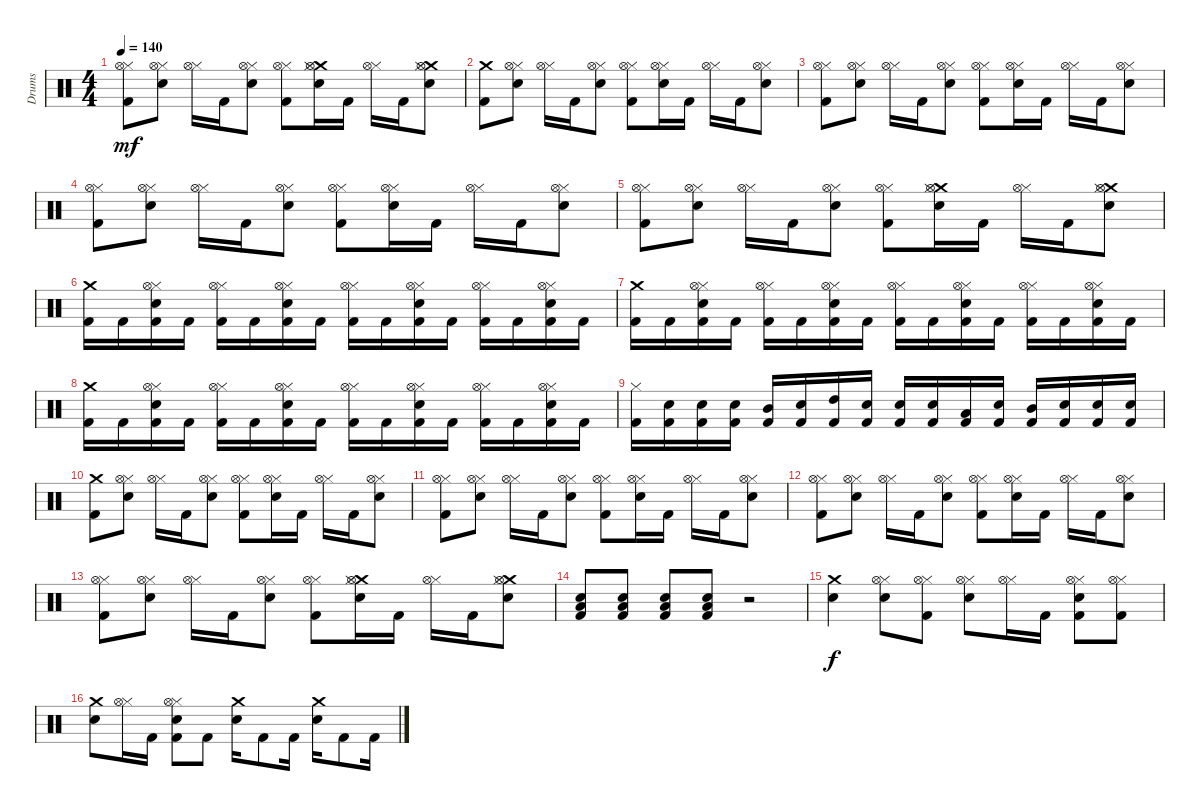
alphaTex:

\track ("Drums" "Drums") {instrument percussion}
\staff {score}
\articulation defaults
\ts (4 4)
\tempo 140
\clef neutral
\ks c
("Hi-Hat (closed)" "Hi-Hat (open)" "Kick (hit) 2").8{dy mf} ("Hi-Hat (closed)" "Hi-Hat (open)" "Electric Snare (hit)").8 ("Hi-Hat (closed)" "Hi-Hat (open)").16 "Kick (hit) 2".16 ("Hi-Hat (closed)" "Hi-Hat (open)" "Electric Snare (hit)").8 ("Hi-Hat (closed)" "Hi-Hat (open)" "Kick (hit) 2").8 ("Crash medium (hit)" "Hi-Hat (closed)" "Hi-Hat (open)" "Electric Snare (hit)").16 "Kick (hit) 2".16 ("Hi-Hat (closed)" "Hi-Hat (open)").16 "Kick (hit) 2".16 ("Crash medium (hit)" "Hi-Hat (closed)" "Hi-Hat (open)" "Electric Snare (hit)").8 |
("Crash medium (hit)" "Kick (hit) 2").8 ("Hi-Hat (closed)" "Hi-Hat (open)" "Electric Snare (hit)").8 ("Hi-Hat (closed)" "Hi-Hat (open)").16 "Kick (hit) 2".16 ("Hi-Hat (closed)" "Hi-Hat (open)" "Electric Snare (hit)").8 ("Hi-Hat (closed)" "Hi-Hat (open)" "Kick (hit) 2").8 ("Hi-Hat (closed)" "Hi-Hat (open)" "Electric Snare (hit)").16 "Kick (hit) 2".16 ("Hi-Hat (closed)" "Hi-Hat (open)").16 "Kick (hit) 2".16 ("Hi-Hat (closed)" "Hi-Hat (open)" "Electric Snare (hit)").8 |
("Hi-Hat (closed)" "Hi-Hat (open)" "Kick (hit) 2").8 ("Hi-Hat (closed)" "Hi-Hat (open)" "Electric Snare (hit)").8 ("Hi-Hat (closed)" "Hi-Hat (open)").16 "Kick (hit) 2".16 ("Hi-Hat (closed)" "Hi-Hat (open)" "Electric Snare (hit)").8 ("Hi-Hat (closed)" "Hi-Hat (open)" "Kick (hit) 2").8 ("Hi-Hat (closed)" "Hi-Hat (open)" "Electric Snare (hit)").16 "Kick (hit) 2".16 ("Hi-Hat (closed)" "Hi-Hat (open)").16 "Kick (hit) 2".16 ("Hi-Hat (closed)" "Hi-Hat (open)" "Electric Snare (hit)").8 |
("Hi-Hat (closed)" "Hi-Hat (open)" "Kick (hit) 2").8 ("Hi-Hat (closed)" "Hi-Hat (open)" "Electric Snare (hit)").8 ("Hi-Hat (closed)" "Hi-Hat (open)").16 "Kick (hit) 2".16 ("Hi-Hat (closed)" "Hi-Hat (open)" "Electric Snare (hit)").8 ("Hi-Hat (closed)" "Hi-Hat (open)" "Kick (hit) 2").8 ("Hi-Hat (closed)" "Hi-Hat (open)" "Electric Snare (hit)").16 "Kick (hit) 2".16 ("Hi-Hat (closed)" "Hi-Hat (open)").16 "Kick (hit) 2".16 ("Hi-Hat (closed)" "Hi-Hat (open)" "Electric Snare (hit)").8 |
("Hi-Hat (closed)" "Hi-Hat (open)" "Kick (hit) 2").8 ("Hi-Hat (closed)" "Hi-Hat (open)" "Electric Snare (hit)").8 ("Hi-Hat (closed)" "Hi-Hat (open)").16 "Kick (hit) 2".16 ("Hi-Hat (closed)" "Hi-Hat (open)" "Electric Snare (hit)").8 ("Hi-Hat (closed)" "Hi-Hat (open)" "Kick (hit) 2").8 ("Crash medium (hit)" "Hi-Hat (closed)" "Hi-Hat (open)" "Electric Snare (hit)").16 "Kick (hit) 2".16 ("Hi-Hat (closed)" "Hi-Hat (open)").16 "Kick (hit) 2".16 ("Crash medium (hit)" "Hi-Hat (closed)" "Hi-Hat (open)" "Electric Snare (hit)").8 |
("Crash medium (hit)" "Kick (hit) 2").16 "Kick (hit) 2".16 ("Hi-Hat (closed)" "Hi-Hat (open)" "Electric Snare (hit)" "Kick (hit) 2").16 "Kick (hit) 2".16 ("Hi-Hat (closed)" "Hi-Hat (open)" "Kick (hit) 2").16 "Kick (hit) 2".16 ("Hi-Hat (closed)" "Hi-Hat (open)" "Electric Snare (hit)" "Kick (hit) 2").16 "Kick (hit) 2".16 ("Hi-Hat (closed)" "Hi-Hat (open)" "Kick (hit) 2").16 "Kick (hit) 2".16 ("Hi-Hat (closed)" "Hi-Hat (open)" "Electric Snare (hit)" "Kick (hit) 2").16 "Kick (hit) 2".16 ("Hi-Hat (closed)" "Hi-Hat (open)" "Kick (hit) 2").16 "Kick (hit) 2".16 ("Hi-Hat (closed)" "Hi-Hat (open)" "Electric Snare (hit)" "Kick (hit) 2").16 "Kick (hit) 2".16 |
("Crash medium (hit)" "Kick (hit) 2").16 "Kick (hit) 2".16 ("Hi-Hat (closed)" "Hi-Hat (open)" "Electric Snare (hit)" "Kick (hit) 2").16 "Kick (hit) 2".16 ("Hi-Hat (closed)" "Hi-Hat (open)" "Kick (hit) 2").16 "Kick (hit) 2".16 ("Hi-Hat (closed)" "Hi-Hat (open)" "Electric Snare (hit)" "Kick (hit) 2").16 "Kick (hit) 2".16 ("Hi-Hat (closed)" "Hi-Hat (open)" "Kick (hit) 2").16 "Kick (hit) 2".16 ("Hi-Hat (closed)" "Hi-Hat (open)" "Electric Snare (hit)" "Kick (hit) 2").16 "Kick (hit) 2".16 ("Hi-Hat (closed)" "Hi-Hat (open)" "Kick (hit) 2").16 "Kick (hit) 2".16 ("Hi-Hat (closed)" "Hi-Hat (open)" "Electric Snare (hit)" "Kick (hit) 2").16 "Kick (hit) 2".16 |
("Crash medium (hit)" "Kick (hit) 2").16 "Kick (hit) 2".16 ("Hi-Hat (closed)" "Hi-Hat (open)" "Electric Snare (hit)" "Kick (hit) 2").16 "Kick (hit) 2".16 ("Hi-Hat (closed)" "Hi-Hat (open)" "Kick (hit) 2").16 "Kick (hit) 2".16 ("Hi-Hat (closed)" "Hi-Hat (open)" "Electric Snare (hit)" "Kick (hit) 2").16 "Kick (hit) 2".16 ("Hi-Hat (closed)" "Hi-Hat (open)" "Kick (hit) 2").16 "Kick (hit) 2".16 ("Hi-Hat (closed)" "Hi-Hat (open)" "Electric Snare (hit)" "Kick (hit) 2").16 "Kick (hit) 2".16 ("Hi-Hat (closed)" "Hi-Hat (open)" "Kick (hit) 2").16 "Kick (hit) 2".16 ("Hi-Hat (closed)" "Hi-Hat (open)" "Electric Snare (hit)" "Kick (hit) 2").16 "Kick (hit) 2".16 |
("Hi-Hat (closed)" "Kick (hit) 2").16 ("Electric Snare (hit)" "Kick (hit) 2").16 ("Electric Snare (hit)" "Kick (hit) 2").16 ("Electric Snare (hit)" "Kick (hit) 2").16 ("Mid Tom (hit)" "Kick (hit) 2").16 ("Electric Snare (hit)" "Kick (hit) 2").16 ("High Tom (hit)" "Kick (hit) 2").16 ("Electric Snare (hit)" "Kick (hit) 2").16 ("Electric Snare (hit)" "Kick (hit) 2").16 ("Electric Snare (hit)" "Kick (hit) 2").16 ("Low Tom (hit)" "Kick (hit) 2").16 ("Electric Snare (hit)" "Kick (hit) 2").16 ("Mid Tom (hit)" "Kick (hit) 2").16 ("Electric Snare (hit)" "Kick (hit) 2").16 ("Electric Snare (hit)" "Kick (hit) 2").16 ("Electric Snare (hit)" "Kick (hit) 2").16 |
("Crash medium (hit)" "Kick (hit) 2").8 ("Hi-Hat (closed)" "Hi-Hat (open)" "Electric Snare (hit)").8 ("Hi-Hat (closed)" "Hi-Hat (open)").16 "Kick (hit) 2".16 ("Hi-Hat (closed)" "Hi-Hat (open)" "Electric Snare (hit)").8 ("Hi-Hat (closed)" "Hi-Hat (open)" "Kick (hit) 2").8 ("Hi-Hat (closed)" "Hi-Hat (open)" "Electric Snare (hit)").16 "Kick (hit) 2".16 ("Hi-Hat (closed)" "Hi-Hat (open)").16 "Kick (hit) 2".16 ("Hi-Hat (closed)" "Hi-Hat (open)" "Electric Snare (hit)").8 |
("Hi-Hat (closed)" "Hi-Hat (open)" "Kick (hit) 2").8 ("Hi-Hat (closed)" "Hi-Hat (open)" "Electric Snare (hit)").8 ("Hi-Hat (closed)" "Hi-Hat (open)").16 "Kick (hit) 2".16 ("Hi-Hat (closed)" "Hi-Hat (open)" "Electric Snare (hit)").8 ("Hi-Hat (closed)" "Hi-Hat (open)" "Kick (hit) 2").8 ("Hi-Hat (closed)" "Hi-Hat (open)" "Electric Snare (hit)").16 "Kick (hit) 2".16 ("Hi-Hat (closed)" "Hi-Hat (open)").16 "Kick (hit) 2".16 ("Hi-Hat (closed)" "Hi-Hat (open)" "Electric Snare (hit)").8 |
("Hi-Hat (closed)" "Hi-Hat (open)" "Kick (hit) 2").8 ("Hi-Hat (closed)" "Hi-Hat (open)" "Electric Snare (hit)").8 ("Hi-Hat (closed)" "Hi-Hat (open)").16 "Kick (hit) 2".16 ("Hi-Hat (closed)" "Hi-Hat (open)" "Electric Snare (hit)").8 ("Hi-Hat (closed)" "Hi-Hat (open)" "Kick (hit) 2").8 ("Hi-Hat (closed)" "Hi-Hat (open)" "Electric Snare (hit)").16 "Kick (hit) 2".16 ("Hi-Hat (closed)" "Hi-Hat (open)").16 "Kick (hit) 2".16 ("Hi-Hat (closed)" "Hi-Hat (open)" "Electric Snare (hit)").8 |
("Hi-Hat (closed)" "Hi-Hat (open)" "Kick (hit) 2").8 ("Hi-Hat (closed)" "Hi-Hat (open)" "Electric Snare (hit)").8 ("Hi-Hat (closed)" "Hi-Hat (open)").16 "Kick (hit) 2".16 ("Hi-Hat (closed)" "Hi-Hat (open)" "Electric Snare (hit)").8 ("Hi-Hat (closed)" "Hi-Hat (open)" "Kick (hit) 2").8 ("Crash medium (hit)" "Hi-Hat (closed)" "Hi-Hat (open)" "Electric Snare (hit)").16 "Kick (hit) 2".16 ("Hi-Hat (closed)" "Hi-Hat (open)").16 "Kick (hit) 2".16 ("Crash medium (hit)" "Hi-Hat (closed)" "Hi-Hat (open)" "Electric Snare (hit)").8 |
("Low Tom (hit)" "Electric Snare (hit)" "Kick (hit) 2").8 ("Low Tom (hit)" "Electric Snare (hit)" "Kick (hit) 2").8 ("Low Tom (hit)" "Electric Snare (hit)" "Kick (hit) 2").8 ("Low Tom (hit)" "Electric Snare (hit)" "Kick (hit) 2").8 r.2 |
("Crash medium (hit)" "Electric Snare (hit)").4{dy f} ("Hi-Hat (closed)" "Hi-Hat (open)" "Electric Snare (hit)").8 ("Hi-Hat (closed)" "Hi-Hat (open)" "Kick (hit) 2").8 ("Hi-Hat (closed)" "Hi-Hat (open)" "Electric Snare (hit)").8 ("Hi-Hat (closed)" "Hi-Hat (open)").16 "Kick (hit) 2".16 ("Hi-Hat (closed)" "Hi-Hat (open)" "Electric Snare (hit)" "Kick (hit) 2").8 ("Hi-Hat (closed)" "Hi-Hat (open)" "Kick (hit) 2").8 |
("Crash medium (hit)" "Electric Snare (hit)").8 ("Hi-Hat (closed)" "Hi-Hat (open)").16 "Kick (hit) 2".16 ("Hi-Hat (closed)" "Hi-Hat (open)" "Electric Snare (hit)" "Kick (hit) 2").8 "Kick (hit) 2".8 ("Crash medium (hit)" "Electric Snare (hit)").16 "Kick (hit) 2".8 "Kick (hit) 2".16 ("Crash medium (hit)" "Electric Snare (hit)").16 "Kick (hit) 2".8 "Kick (hit) 2".16
